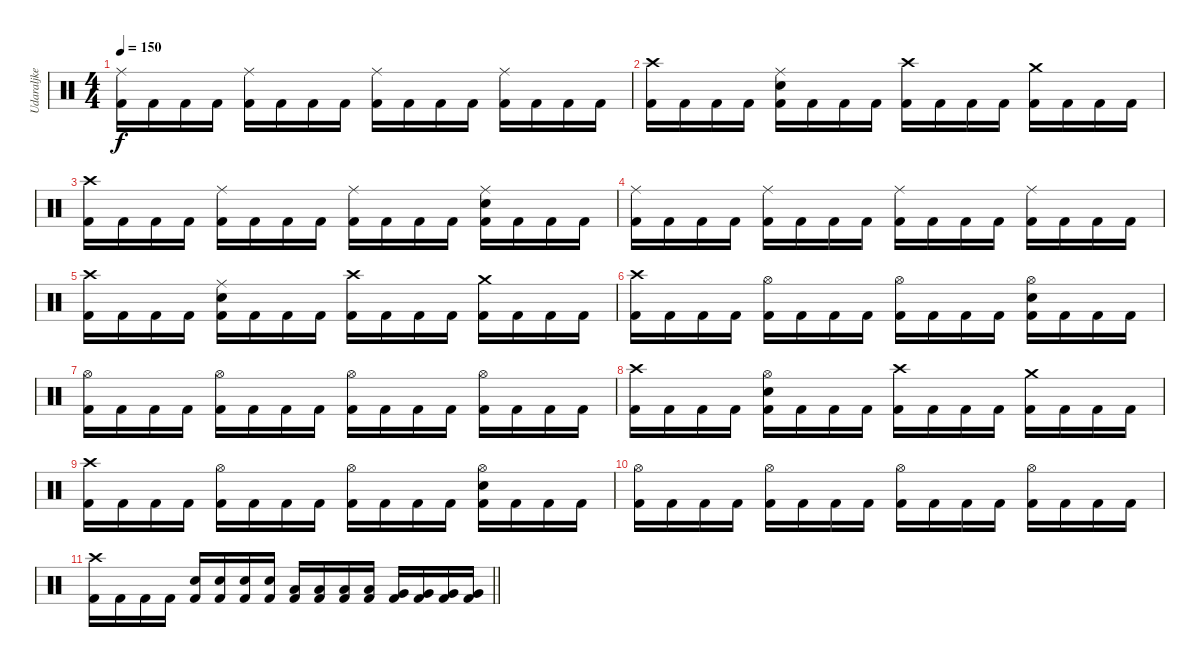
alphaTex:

\track ("Udaraljke" "Udaraljke") {instrument percussion}
\staff {score}
\articulation defaults
\ts (4 4)
\tempo 150
\clef neutral
\ks c
("Ride (middle)" "Kick (hit) 2").16{dy f} "Kick (hit) 2".16 "Kick (hit) 2".16 "Kick (hit) 2".16 ("Ride (middle)" "Kick (hit) 2").16 "Kick (hit) 2".16 "Kick (hit) 2".16 "Kick (hit) 2".16 ("Ride (middle)" "Kick (hit) 2").16 "Kick (hit) 2".16 "Kick (hit) 2".16 "Kick (hit) 2".16 ("Ride (middle)" "Kick (hit) 2").16 "Kick (hit) 2".16 "Kick (hit) 2".16 "Kick (hit) 2".16 |
("Crash high (hit)" "Kick (hit) 2").16 "Kick (hit) 2".16 "Kick (hit) 2".16 "Kick (hit) 2".16 ("Ride (middle)" "Electric Snare (hit)" "Kick (hit) 2").16 "Kick (hit) 2".16 "Kick (hit) 2".16 "Kick (hit) 2".16 ("Crash high (hit)" "Kick (hit) 2").16 "Kick (hit) 2".16 "Kick (hit) 2".16 "Kick (hit) 2".16 ("Crash medium (hit)" "Kick (hit) 2").16 "Kick (hit) 2".16 "Kick (hit) 2".16 "Kick (hit) 2".16 |
("Crash high (hit)" "Kick (hit) 2").16 "Kick (hit) 2".16 "Kick (hit) 2".16 "Kick (hit) 2".16 ("Ride (middle)" "Kick (hit) 2").16 "Kick (hit) 2".16 "Kick (hit) 2".16 "Kick (hit) 2".16 ("Ride (middle)" "Kick (hit) 2").16 "Kick (hit) 2".16 "Kick (hit) 2".16 "Kick (hit) 2".16 ("Ride (middle)" "Electric Snare (hit)" "Kick (hit) 2").16 "Kick (hit) 2".16 "Kick (hit) 2".16 "Kick (hit) 2".16 |
("Ride (middle)" "Kick (hit) 2").16 "Kick (hit) 2".16 "Kick (hit) 2".16 "Kick (hit) 2".16 ("Ride (middle)" "Kick (hit) 2").16 "Kick (hit) 2".16 "Kick (hit) 2".16 "Kick (hit) 2".16 ("Ride (middle)" "Kick (hit) 2").16 "Kick (hit) 2".16 "Kick (hit) 2".16 "Kick (hit) 2".16 ("Ride (middle)" "Kick (hit) 2").16 "Kick (hit) 2".16 "Kick (hit) 2".16 "Kick (hit) 2".16 |
("Crash high (hit)" "Kick (hit) 2").16 "Kick (hit) 2".16 "Kick (hit) 2".16 "Kick (hit) 2".16 ("Ride (middle)" "Electric Snare (hit)" "Kick (hit) 2").16 "Kick (hit) 2".16 "Kick (hit) 2".16 "Kick (hit) 2".16 ("Crash high (hit)" "Kick (hit) 2").16 "Kick (hit) 2".16 "Kick (hit) 2".16 "Kick (hit) 2".16 ("Crash medium (hit)" "Kick (hit) 2").16 "Kick (hit) 2".16 "Kick (hit) 2".16 "Kick (hit) 2".16 |
("Crash high (hit)" "Kick (hit) 2").16 "Kick (hit) 2".16 "Kick (hit) 2".16 "Kick (hit) 2".16 ("Hi-Hat (open)" "Kick (hit) 2").16 "Kick (hit) 2".16 "Kick (hit) 2".16 "Kick (hit) 2".16 ("Hi-Hat (open)" "Kick (hit) 2").16 "Kick (hit) 2".16 "Kick (hit) 2".16 "Kick (hit) 2".16 ("Hi-Hat (open)" "Electric Snare (hit)" "Kick (hit) 2").16 "Kick (hit) 2".16 "Kick (hit) 2".16 "Kick (hit) 2".16 |
("Hi-Hat (open)" "Kick (hit) 2").16 "Kick (hit) 2".16 "Kick (hit) 2".16 "Kick (hit) 2".16 ("Hi-Hat (open)" "Kick (hit) 2").16 "Kick (hit) 2".16 "Kick (hit) 2".16 "Kick (hit) 2".16 ("Hi-Hat (open)" "Kick (hit) 2").16 "Kick (hit) 2".16 "Kick (hit) 2".16 "Kick (hit) 2".16 ("Hi-Hat (open)" "Kick (hit) 2").16 "Kick (hit) 2".16 "Kick (hit) 2".16 "Kick (hit) 2".16 |
("Crash high (hit)" "Kick (hit) 2").16 "Kick (hit) 2".16 "Kick (hit) 2".16 "Kick (hit) 2".16 ("Hi-Hat (open)" "Electric Snare (hit)" "Kick (hit) 2").16 "Kick (hit) 2".16 "Kick (hit) 2".16 "Kick (hit) 2".16 ("Crash high (hit)" "Kick (hit) 2").16 "Kick (hit) 2".16 "Kick (hit) 2".16 "Kick (hit) 2".16 ("Crash medium (hit)" "Kick (hit) 2").16 "Kick (hit) 2".16 "Kick (hit) 2".16 "Kick (hit) 2".16 |
("Crash high (hit)" "Kick (hit) 2").16 "Kick (hit) 2".16 "Kick (hit) 2".16 "Kick (hit) 2".16 ("Hi-Hat (open)" "Kick (hit) 2").16 "Kick (hit) 2".16 "Kick (hit) 2".16 "Kick (hit) 2".16 ("Hi-Hat (open)" "Kick (hit) 2").16 "Kick (hit) 2".16 "Kick (hit) 2".16 "Kick (hit) 2".16 ("Hi-Hat (open)" "Electric Snare (hit)" "Kick (hit) 2").16 "Kick (hit) 2".16 "Kick (hit) 2".16 "Kick (hit) 2".16 |
("Hi-Hat (open)" "Kick (hit) 2").16 "Kick (hit) 2".16 "Kick (hit) 2".16 "Kick (hit) 2".16 ("Hi-Hat (open)" "Kick (hit) 2").16 "Kick (hit) 2".16 "Kick (hit) 2".16 "Kick (hit) 2".16 ("Hi-Hat (open)" "Kick (hit) 2").16 "Kick (hit) 2".16 "Kick (hit) 2".16 "Kick (hit) 2".16 ("Hi-Hat (open)" "Kick (hit) 2").16 "Kick (hit) 2".16 "Kick (hit) 2".16 "Kick (hit) 2".16 |
\barLineRight lightlight
("Crash high (hit)" "Kick (hit) 2").16 "Kick (hit) 2".16 "Kick (hit) 2".16 "Kick (hit) 2".16 ("Electric Snare (hit)" "Kick (hit) 2").16 ("Electric Snare (hit)" "Kick (hit) 2").16 ("Electric Snare (hit)" "Kick (hit) 2").16 ("Electric Snare (hit)" "Kick (hit) 2").16 ("Low Floor Tom (hit)" "Kick (hit) 2").16 ("Low Floor Tom (hit)" "Kick (hit) 2").16 ("Low Floor Tom (hit)" "Kick (hit) 2").16 ("Low Floor Tom (hit)" "Kick (hit) 2").16 ("Very Low Tom (hit)" "Kick (hit) 2").16 ("Very Low Tom (hit)" "Kick (hit) 2").16 ("Very Low Tom (hit)" "Kick (hit) 2").16 ("Very Low Tom (hit)" "Kick (hit) 2").16
